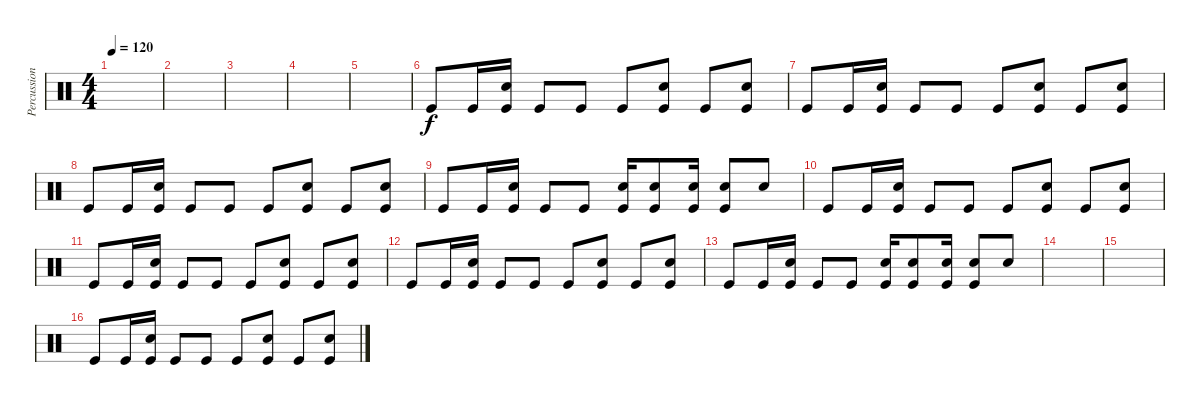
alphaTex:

\track ("Percussion" "Percussion") {instrument percussion}
\staff {score}
\articulation defaults
\ts (4 4)
\tempo 120
\clef neutral
\ks c
|
|
|
|
|
"Kick (hit)".8 "Kick (hit)".16 ("Kick (hit)" "Snare (hit) 2").16 "Kick (hit)".8 "Kick (hit)".8 "Kick (hit)".8 ("Kick (hit)" "Snare (hit) 2").8 "Kick (hit)".8 ("Kick (hit)" "Snare (hit) 2").8 |
"Kick (hit)".8 "Kick (hit)".16 ("Kick (hit)" "Snare (hit) 2").16 "Kick (hit)".8 "Kick (hit)".8 "Kick (hit)".8 ("Kick (hit)" "Snare (hit) 2").8 "Kick (hit)".8 ("Kick (hit)" "Snare (hit) 2").8 |
"Kick (hit)".8 "Kick (hit)".16 ("Kick (hit)" "Snare (hit) 2").16 "Kick (hit)".8 "Kick (hit)".8 "Kick (hit)".8 ("Kick (hit)" "Snare (hit) 2").8 "Kick (hit)".8 ("Kick (hit)" "Snare (hit) 2").8 |
"Kick (hit)".8 "Kick (hit)".16 ("Kick (hit)" "Snare (hit) 2").16 "Kick (hit)".8 "Kick (hit)".8 ("Kick (hit)" "Snare (hit) 2").16 ("Kick (hit)" "Snare (hit) 2").8 ("Kick (hit)" "Snare (hit) 2").16 ("Kick (hit)" "Snare (hit) 2").8 "Snare (hit) 2".8 |
"Kick (hit)".8 "Kick (hit)".16 ("Kick (hit)" "Snare (hit) 2").16 "Kick (hit)".8 "Kick (hit)".8 "Kick (hit)".8 ("Kick (hit)" "Snare (hit) 2").8 "Kick (hit)".8 ("Kick (hit)" "Snare (hit) 2").8 |
"Kick (hit)".8 "Kick (hit)".16 ("Kick (hit)" "Snare (hit) 2").16 "Kick (hit)".8 "Kick (hit)".8 "Kick (hit)".8 ("Kick (hit)" "Snare (hit) 2").8 "Kick (hit)".8 ("Kick (hit)" "Snare (hit) 2").8 |
"Kick (hit)".8 "Kick (hit)".16 ("Kick (hit)" "Snare (hit) 2").16 "Kick (hit)".8 "Kick (hit)".8 "Kick (hit)".8 ("Kick (hit)" "Snare (hit) 2").8 "Kick (hit)".8 ("Kick (hit)" "Snare (hit) 2").8 |
"Kick (hit)".8 "Kick (hit)".16 ("Kick (hit)" "Snare (hit) 2").16 "Kick (hit)".8 "Kick (hit)".8 ("Kick (hit)" "Snare (hit) 2").16 ("Kick (hit)" "Snare (hit) 2").8 ("Kick (hit)" "Snare (hit) 2").16 ("Kick (hit)" "Snare (hit) 2").8 "Snare (hit) 2".8 |
|
|
"Kick (hit)".8 "Kick (hit)".16 ("Kick (hit)" "Snare (hit) 2").16 "Kick (hit)".8 "Kick (hit)".8 "Kick (hit)".8 ("Kick (hit)" "Snare (hit) 2").8 "Kick (hit)".8 ("Kick (hit)" "Snare (hit) 2").8
